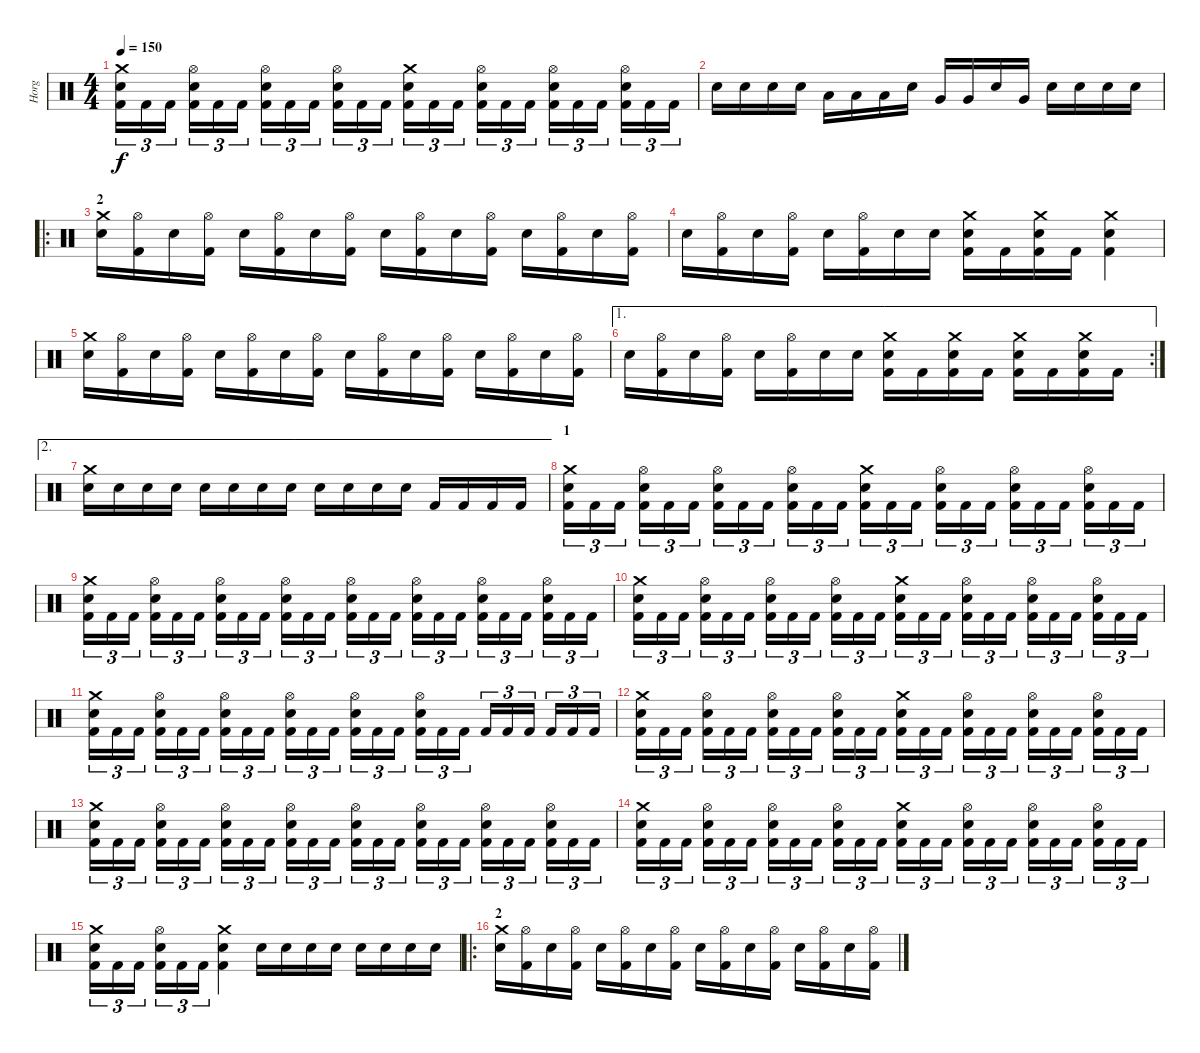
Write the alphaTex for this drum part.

\track ("Horg" "Horg") {instrument percussion}
\staff {score}
\articulation defaults
\ts (4 4)
\tempo 150
\clef neutral
\ks c
("Crash medium (hit)" "Snare (hit) 2" "Kick (hit) 2").16{tu (3 2) dy f} "Kick (hit) 2".16{tu (3 2)} "Kick (hit) 2".16{tu (3 2)} ("Hi-Hat (open)" "Snare (hit) 2" "Kick (hit) 2").16{tu (3 2)} "Kick (hit) 2".16{tu (3 2)} "Kick (hit) 2".16{tu (3 2)} ("Hi-Hat (open)" "Snare (hit) 2" "Kick (hit) 2").16{tu (3 2)} "Kick (hit) 2".16{tu (3 2)} "Kick (hit) 2".16{tu (3 2)} ("Hi-Hat (open)" "Snare (hit) 2" "Kick (hit) 2").16{tu (3 2)} "Kick (hit) 2".16{tu (3 2)} "Kick (hit) 2".16{tu (3 2)} ("Crash medium (hit)" "Snare (hit) 2" "Kick (hit) 2").16{tu (3 2)} "Kick (hit) 2".16{tu (3 2)} "Kick (hit) 2".16{tu (3 2)} ("Hi-Hat (open)" "Snare (hit) 2" "Kick (hit) 2").16{tu (3 2)} "Kick (hit) 2".16{tu (3 2)} "Kick (hit) 2".16{tu (3 2)} ("Hi-Hat (open)" "Snare (hit) 2" "Kick (hit) 2").16{tu (3 2)} "Kick (hit) 2".16{tu (3 2)} "Kick (hit) 2".16{tu (3 2)} ("Hi-Hat (open)" "Snare (hit) 2" "Kick (hit) 2").16{tu (3 2)} "Kick (hit) 2".16{tu (3 2)} "Kick (hit) 2".16{tu (3 2)} |
"Snare (hit) 2".16 "Snare (hit) 2".16 "Snare (hit) 2".16 "Snare (hit) 2".16 "Low Tom (hit)".16 "Low Tom (hit)".16 "Low Tom (hit)".16 "Snare (hit) 2".16 "Very Low Tom (hit)".16 "Very Low Tom (hit)".16 "Snare (hit) 2".16 "Very Low Tom (hit)".16 "Snare (hit) 2".16 "Snare (hit) 2".16 "Snare (hit) 2".16 "Snare (hit) 2".16 |
\ro
\section ("" "2")
("Crash medium (hit)" "Snare (hit) 2").16 ("Hi-Hat (open)" "Kick (hit) 2").16 "Snare (hit) 2".16 ("Hi-Hat (open)" "Kick (hit) 2").16 "Snare (hit) 2".16 ("Hi-Hat (open)" "Kick (hit) 2").16 "Snare (hit) 2".16 ("Hi-Hat (open)" "Kick (hit) 2").16 "Snare (hit) 2".16 ("Hi-Hat (open)" "Kick (hit) 2").16 "Snare (hit) 2".16 ("Hi-Hat (open)" "Kick (hit) 2").16 "Snare (hit) 2".16 ("Hi-Hat (open)" "Kick (hit) 2").16 "Snare (hit) 2".16 ("Hi-Hat (open)" "Kick (hit) 2").16 |
"Snare (hit) 2".16 ("Hi-Hat (open)" "Kick (hit) 2").16 "Snare (hit) 2".16 ("Hi-Hat (open)" "Kick (hit) 2").16 "Snare (hit) 2".16 ("Hi-Hat (open)" "Kick (hit) 2").16 "Snare (hit) 2".16 "Snare (hit) 2".16 ("Crash medium (hit)" "Snare (hit) 2" "Kick (hit) 2").16 "Kick (hit) 2".16 ("Crash medium (hit)" "Snare (hit) 2" "Kick (hit) 2").16 "Kick (hit) 2".16 ("Crash medium (hit)" "Snare (hit) 2" "Kick (hit) 2").4 |
("Crash medium (hit)" "Snare (hit) 2").16 ("Hi-Hat (open)" "Kick (hit) 2").16 "Snare (hit) 2".16 ("Hi-Hat (open)" "Kick (hit) 2").16 "Snare (hit) 2".16 ("Hi-Hat (open)" "Kick (hit) 2").16 "Snare (hit) 2".16 ("Hi-Hat (open)" "Kick (hit) 2").16 "Snare (hit) 2".16 ("Hi-Hat (open)" "Kick (hit) 2").16 "Snare (hit) 2".16 ("Hi-Hat (open)" "Kick (hit) 2").16 "Snare (hit) 2".16 ("Hi-Hat (open)" "Kick (hit) 2").16 "Snare (hit) 2".16 ("Hi-Hat (open)" "Kick (hit) 2").16 |
\ae 1
\rc 2 "Snare (hit) 2".16
("Hi-Hat (open)" "Kick (hit) 2").16 "Snare (hit) 2".16 ("Hi-Hat (open)" "Kick (hit) 2").16 "Snare (hit) 2".16 ("Hi-Hat (open)" "Kick (hit) 2").16 "Snare (hit) 2".16 "Snare (hit) 2".16 ("Crash medium (hit)" "Snare (hit) 2" "Kick (hit) 2").16 "Kick (hit) 2".16 ("Crash medium (hit)" "Snare (hit) 2" "Kick (hit) 2").16 "Kick (hit) 2".16 ("Crash medium (hit)" "Snare (hit) 2" "Kick (hit) 2").16 "Kick (hit) 2".16 ("Crash medium (hit)" "Snare (hit) 2" "Kick (hit) 2").16 "Kick (hit) 2".16 |
\ae 2
("Crash medium (hit)" "Snare (hit) 2").16 "Snare (hit) 2".16 "Snare (hit) 2".16 "Snare (hit) 2".16 "Snare (hit) 2".16 "Snare (hit) 2".16 "Snare (hit) 2".16 "Snare (hit) 2".16 "Snare (hit) 2".16 "Snare (hit) 2".16 "Snare (hit) 2".16 "Snare (hit) 2".16 "Kick (hit) 2".16 "Kick (hit) 2".16 "Kick (hit) 2".16 "Kick (hit) 2".16 |
\section ("" "1")
("Crash medium (hit)" "Snare (hit) 2" "Kick (hit) 2").16{tu (3 2)} "Kick (hit) 2".16{tu (3 2)} "Kick (hit) 2".16{tu (3 2)} ("Hi-Hat (open)" "Snare (hit) 2" "Kick (hit) 2").16{tu (3 2)} "Kick (hit) 2".16{tu (3 2)} "Kick (hit) 2".16{tu (3 2)} ("Hi-Hat (open)" "Snare (hit) 2" "Kick (hit) 2").16{tu (3 2)} "Kick (hit) 2".16{tu (3 2)} "Kick (hit) 2".16{tu (3 2)} ("Hi-Hat (open)" "Snare (hit) 2" "Kick (hit) 2").16{tu (3 2)} "Kick (hit) 2".16{tu (3 2)} "Kick (hit) 2".16{tu (3 2)} ("Crash medium (hit)" "Snare (hit) 2" "Kick (hit) 2").16{tu (3 2)} "Kick (hit) 2".16{tu (3 2)} "Kick (hit) 2".16{tu (3 2)} ("Hi-Hat (open)" "Snare (hit) 2" "Kick (hit) 2").16{tu (3 2)} "Kick (hit) 2".16{tu (3 2)} "Kick (hit) 2".16{tu (3 2)} ("Hi-Hat (open)" "Snare (hit) 2" "Kick (hit) 2").16{tu (3 2)} "Kick (hit) 2".16{tu (3 2)} "Kick (hit) 2".16{tu (3 2)} ("Hi-Hat (open)" "Snare (hit) 2" "Kick (hit) 2").16{tu (3 2)} "Kick (hit) 2".16{tu (3 2)} "Kick (hit) 2".16{tu (3 2)} |
("Crash medium (hit)" "Snare (hit) 2" "Kick (hit) 2").16{tu (3 2)} "Kick (hit) 2".16{tu (3 2)} "Kick (hit) 2".16{tu (3 2)} ("Hi-Hat (open)" "Snare (hit) 2" "Kick (hit) 2").16{tu (3 2)} "Kick (hit) 2".16{tu (3 2)} "Kick (hit) 2".16{tu (3 2)} ("Hi-Hat (open)" "Snare (hit) 2" "Kick (hit) 2").16{tu (3 2)} "Kick (hit) 2".16{tu (3 2)} "Kick (hit) 2".16{tu (3 2)} ("Hi-Hat (open)" "Snare (hit) 2" "Kick (hit) 2").16{tu (3 2)} "Kick (hit) 2".16{tu (3 2)} "Kick (hit) 2".16{tu (3 2)} ("Hi-Hat (open)" "Snare (hit) 2" "Kick (hit) 2").16{tu (3 2)} "Kick (hit) 2".16{tu (3 2)} "Kick (hit) 2".16{tu (3 2)} ("Hi-Hat (open)" "Snare (hit) 2" "Kick (hit) 2").16{tu (3 2)} "Kick (hit) 2".16{tu (3 2)} "Kick (hit) 2".16{tu (3 2)} ("Hi-Hat (open)" "Snare (hit) 2" "Kick (hit) 2").16{tu (3 2)} "Kick (hit) 2".16{tu (3 2)} "Kick (hit) 2".16{tu (3 2)} ("Hi-Hat (open)" "Snare (hit) 2" "Kick (hit) 2").16{tu (3 2)} "Kick (hit) 2".16{tu (3 2)} "Kick (hit) 2".16{tu (3 2)} |
("Crash medium (hit)" "Snare (hit) 2" "Kick (hit) 2").16{tu (3 2)} "Kick (hit) 2".16{tu (3 2)} "Kick (hit) 2".16{tu (3 2)} ("Hi-Hat (open)" "Snare (hit) 2" "Kick (hit) 2").16{tu (3 2)} "Kick (hit) 2".16{tu (3 2)} "Kick (hit) 2".16{tu (3 2)} ("Hi-Hat (open)" "Snare (hit) 2" "Kick (hit) 2").16{tu (3 2)} "Kick (hit) 2".16{tu (3 2)} "Kick (hit) 2".16{tu (3 2)} ("Hi-Hat (open)" "Snare (hit) 2" "Kick (hit) 2").16{tu (3 2)} "Kick (hit) 2".16{tu (3 2)} "Kick (hit) 2".16{tu (3 2)} ("Crash medium (hit)" "Snare (hit) 2" "Kick (hit) 2").16{tu (3 2)} "Kick (hit) 2".16{tu (3 2)} "Kick (hit) 2".16{tu (3 2)} ("Hi-Hat (open)" "Snare (hit) 2" "Kick (hit) 2").16{tu (3 2)} "Kick (hit) 2".16{tu (3 2)} "Kick (hit) 2".16{tu (3 2)} ("Hi-Hat (open)" "Snare (hit) 2" "Kick (hit) 2").16{tu (3 2)} "Kick (hit) 2".16{tu (3 2)} "Kick (hit) 2".16{tu (3 2)} ("Hi-Hat (open)" "Snare (hit) 2" "Kick (hit) 2").16{tu (3 2)} "Kick (hit) 2".16{tu (3 2)} "Kick (hit) 2".16{tu (3 2)} |
("Crash medium (hit)" "Snare (hit) 2" "Kick (hit) 2").16{tu (3 2)} "Kick (hit) 2".16{tu (3 2)} "Kick (hit) 2".16{tu (3 2)} ("Hi-Hat (open)" "Snare (hit) 2" "Kick (hit) 2").16{tu (3 2)} "Kick (hit) 2".16{tu (3 2)} "Kick (hit) 2".16{tu (3 2)} ("Hi-Hat (open)" "Snare (hit) 2" "Kick (hit) 2").16{tu (3 2)} "Kick (hit) 2".16{tu (3 2)} "Kick (hit) 2".16{tu (3 2)} ("Hi-Hat (open)" "Snare (hit) 2" "Kick (hit) 2").16{tu (3 2)} "Kick (hit) 2".16{tu (3 2)} "Kick (hit) 2".16{tu (3 2)} ("Hi-Hat (open)" "Snare (hit) 2" "Kick (hit) 2").16{tu (3 2)} "Kick (hit) 2".16{tu (3 2)} "Kick (hit) 2".16{tu (3 2)} ("Hi-Hat (open)" "Snare (hit) 2" "Kick (hit) 2").16{tu (3 2)} "Kick (hit) 2".16{tu (3 2)} "Kick (hit) 2".16{tu (3 2)} "Kick (hit) 2".16{tu (3 2)} "Kick (hit) 2".16{tu (3 2)} "Kick (hit) 2".16{tu (3 2)} "Kick (hit) 2".16{tu (3 2)} "Kick (hit) 2".16{tu (3 2)} "Kick (hit) 2".16{tu (3 2)} |
("Crash medium (hit)" "Snare (hit) 2" "Kick (hit) 2").16{tu (3 2)} "Kick (hit) 2".16{tu (3 2)} "Kick (hit) 2".16{tu (3 2)} ("Hi-Hat (open)" "Snare (hit) 2" "Kick (hit) 2").16{tu (3 2)} "Kick (hit) 2".16{tu (3 2)} "Kick (hit) 2".16{tu (3 2)} ("Hi-Hat (open)" "Snare (hit) 2" "Kick (hit) 2").16{tu (3 2)} "Kick (hit) 2".16{tu (3 2)} "Kick (hit) 2".16{tu (3 2)} ("Hi-Hat (open)" "Snare (hit) 2" "Kick (hit) 2").16{tu (3 2)} "Kick (hit) 2".16{tu (3 2)} "Kick (hit) 2".16{tu (3 2)} ("Crash medium (hit)" "Snare (hit) 2" "Kick (hit) 2").16{tu (3 2)} "Kick (hit) 2".16{tu (3 2)} "Kick (hit) 2".16{tu (3 2)} ("Hi-Hat (open)" "Snare (hit) 2" "Kick (hit) 2").16{tu (3 2)} "Kick (hit) 2".16{tu (3 2)} "Kick (hit) 2".16{tu (3 2)} ("Hi-Hat (open)" "Snare (hit) 2" "Kick (hit) 2").16{tu (3 2)} "Kick (hit) 2".16{tu (3 2)} "Kick (hit) 2".16{tu (3 2)} ("Hi-Hat (open)" "Snare (hit) 2" "Kick (hit) 2").16{tu (3 2)} "Kick (hit) 2".16{tu (3 2)} "Kick (hit) 2".16{tu (3 2)} |
("Crash medium (hit)" "Snare (hit) 2" "Kick (hit) 2").16{tu (3 2)} "Kick (hit) 2".16{tu (3 2)} "Kick (hit) 2".16{tu (3 2)} ("Hi-Hat (open)" "Snare (hit) 2" "Kick (hit) 2").16{tu (3 2)} "Kick (hit) 2".16{tu (3 2)} "Kick (hit) 2".16{tu (3 2)} ("Hi-Hat (open)" "Snare (hit) 2" "Kick (hit) 2").16{tu (3 2)} "Kick (hit) 2".16{tu (3 2)} "Kick (hit) 2".16{tu (3 2)} ("Hi-Hat (open)" "Snare (hit) 2" "Kick (hit) 2").16{tu (3 2)} "Kick (hit) 2".16{tu (3 2)} "Kick (hit) 2".16{tu (3 2)} ("Hi-Hat (open)" "Snare (hit) 2" "Kick (hit) 2").16{tu (3 2)} "Kick (hit) 2".16{tu (3 2)} "Kick (hit) 2".16{tu (3 2)} ("Hi-Hat (open)" "Snare (hit) 2" "Kick (hit) 2").16{tu (3 2)} "Kick (hit) 2".16{tu (3 2)} "Kick (hit) 2".16{tu (3 2)} ("Hi-Hat (open)" "Snare (hit) 2" "Kick (hit) 2").16{tu (3 2)} "Kick (hit) 2".16{tu (3 2)} "Kick (hit) 2".16{tu (3 2)} ("Hi-Hat (open)" "Snare (hit) 2" "Kick (hit) 2").16{tu (3 2)} "Kick (hit) 2".16{tu (3 2)} "Kick (hit) 2".16{tu (3 2)} |
("Crash medium (hit)" "Snare (hit) 2" "Kick (hit) 2").16{tu (3 2)} "Kick (hit) 2".16{tu (3 2)} "Kick (hit) 2".16{tu (3 2)} ("Hi-Hat (open)" "Snare (hit) 2" "Kick (hit) 2").16{tu (3 2)} "Kick (hit) 2".16{tu (3 2)} "Kick (hit) 2".16{tu (3 2)} ("Hi-Hat (open)" "Snare (hit) 2" "Kick (hit) 2").16{tu (3 2)} "Kick (hit) 2".16{tu (3 2)} "Kick (hit) 2".16{tu (3 2)} ("Hi-Hat (open)" "Snare (hit) 2" "Kick (hit) 2").16{tu (3 2)} "Kick (hit) 2".16{tu (3 2)} "Kick (hit) 2".16{tu (3 2)} ("Crash medium (hit)" "Snare (hit) 2" "Kick (hit) 2").16{tu (3 2)} "Kick (hit) 2".16{tu (3 2)} "Kick (hit) 2".16{tu (3 2)} ("Hi-Hat (open)" "Snare (hit) 2" "Kick (hit) 2").16{tu (3 2)} "Kick (hit) 2".16{tu (3 2)} "Kick (hit) 2".16{tu (3 2)} ("Hi-Hat (open)" "Snare (hit) 2" "Kick (hit) 2").16{tu (3 2)} "Kick (hit) 2".16{tu (3 2)} "Kick (hit) 2".16{tu (3 2)} ("Hi-Hat (open)" "Snare (hit) 2" "Kick (hit) 2").16{tu (3 2)} "Kick (hit) 2".16{tu (3 2)} "Kick (hit) 2".16{tu (3 2)} |
("Crash medium (hit)" "Snare (hit) 2" "Kick (hit) 2").16{tu (3 2)} "Kick (hit) 2".16{tu (3 2)} "Kick (hit) 2".16{tu (3 2)} ("Hi-Hat (open)" "Snare (hit) 2" "Kick (hit) 2").16{tu (3 2)} "Kick (hit) 2".16{tu (3 2)} "Kick (hit) 2".16{tu (3 2)} ("Crash medium (hit)" "Snare (hit) 2" "Kick (hit) 2").4 "Snare (hit) 2".16 "Snare (hit) 2".16 "Snare (hit) 2".16 "Snare (hit) 2".16 "Snare (hit) 2".16 "Snare (hit) 2".16 "Snare (hit) 2".16 "Snare (hit) 2".16 |
\ro
\section ("" "2")
("Crash medium (hit)" "Snare (hit) 2").16 ("Hi-Hat (open)" "Kick (hit) 2").16 "Snare (hit) 2".16 ("Hi-Hat (open)" "Kick (hit) 2").16 "Snare (hit) 2".16 ("Hi-Hat (open)" "Kick (hit) 2").16 "Snare (hit) 2".16 ("Hi-Hat (open)" "Kick (hit) 2").16 "Snare (hit) 2".16 ("Hi-Hat (open)" "Kick (hit) 2").16 "Snare (hit) 2".16 ("Hi-Hat (open)" "Kick (hit) 2").16 "Snare (hit) 2".16 ("Hi-Hat (open)" "Kick (hit) 2").16 "Snare (hit) 2".16 ("Hi-Hat (open)" "Kick (hit) 2").16
